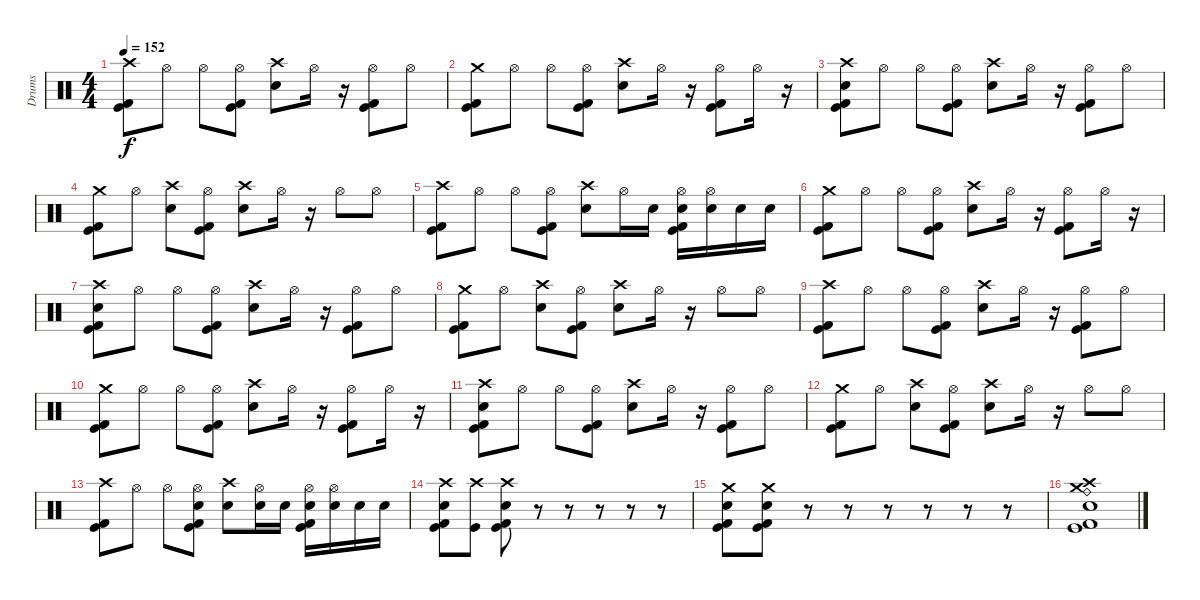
\track ("Drums" "Drums") {instrument percussion}
\staff {score}
\articulation defaults
\ts (4 4)
\tempo 152
\clef neutral
\ks c
("Crash high (hit)" "Kick (hit) 2" "Kick (hit)").8{dy f} "Hi-Hat (open)".8 "Hi-Hat (open)".8 ("Hi-Hat (open)" "Kick (hit) 2" "Kick (hit)").8 ("Crash high (hit)" "Electric Snare (hit)").8 "Hi-Hat (open)".16 r.16 ("Hi-Hat (open)" "Kick (hit) 2" "Kick (hit)").8 "Hi-Hat (open)".8 |
("Crash medium (hit)" "Kick (hit) 2" "Kick (hit)").8 "Hi-Hat (open)".8 "Hi-Hat (open)".8 ("Hi-Hat (open)" "Kick (hit) 2" "Kick (hit)").8 ("Crash high (hit)" "Electric Snare (hit)").8 "Hi-Hat (open)".16 r.16 ("Hi-Hat (open)" "Kick (hit) 2" "Kick (hit)").8 "Hi-Hat (open)".16 r.16 |
("Crash high (hit)" "Electric Snare (hit)" "Kick (hit) 2" "Kick (hit)").8 "Hi-Hat (open)".8 "Hi-Hat (open)".8 ("Hi-Hat (open)" "Kick (hit) 2" "Kick (hit)").8 ("Crash high (hit)" "Electric Snare (hit)").8 "Hi-Hat (open)".16 r.16 ("Hi-Hat (open)" "Kick (hit) 2" "Kick (hit)").8 "Hi-Hat (open)".8 |
("Crash medium (hit)" "Kick (hit) 2" "Kick (hit)").8 "Hi-Hat (open)".8 ("Crash high (hit)" "Electric Snare (hit)").8 ("Hi-Hat (open)" "Kick (hit) 2" "Kick (hit)").8 ("Crash high (hit)" "Electric Snare (hit)").8 "Hi-Hat (open)".16 r.16 "Hi-Hat (open)".8 "Hi-Hat (open)".8 |
("Crash high (hit)" "Kick (hit) 2" "Kick (hit)").8 "Hi-Hat (open)".8 "Hi-Hat (open)".8 ("Hi-Hat (open)" "Kick (hit) 2" "Kick (hit)").8 ("Crash high (hit)" "Electric Snare (hit)").8 "Hi-Hat (open)".16 "Electric Snare (hit)".16 ("Hi-Hat (open)" "Electric Snare (hit)" "Kick (hit) 2" "Kick (hit)").16 ("Hi-Hat (open)" "Electric Snare (hit)").16 "Electric Snare (hit)".16 "Electric Snare (hit)".16 |
("Crash medium (hit)" "Kick (hit) 2" "Kick (hit)").8 "Hi-Hat (open)".8 "Hi-Hat (open)".8 ("Hi-Hat (open)" "Kick (hit) 2" "Kick (hit)").8 ("Crash high (hit)" "Electric Snare (hit)").8 "Hi-Hat (open)".16 r.16 ("Hi-Hat (open)" "Kick (hit) 2" "Kick (hit)").8 "Hi-Hat (open)".16 r.16 |
("Crash high (hit)" "Electric Snare (hit)" "Kick (hit) 2" "Kick (hit)").8 "Hi-Hat (open)".8 "Hi-Hat (open)".8 ("Hi-Hat (open)" "Kick (hit) 2" "Kick (hit)").8 ("Crash high (hit)" "Electric Snare (hit)").8 "Hi-Hat (open)".16 r.16 ("Hi-Hat (open)" "Kick (hit) 2" "Kick (hit)").8 "Hi-Hat (open)".8 |
("Crash medium (hit)" "Kick (hit) 2" "Kick (hit)").8 "Hi-Hat (open)".8 ("Crash high (hit)" "Electric Snare (hit)").8 ("Hi-Hat (open)" "Kick (hit) 2" "Kick (hit)").8 ("Crash high (hit)" "Electric Snare (hit)").8 "Hi-Hat (open)".16 r.16 "Hi-Hat (open)".8 "Hi-Hat (open)".8 |
("Crash high (hit)" "Kick (hit) 2" "Kick (hit)").8 "Hi-Hat (open)".8 "Hi-Hat (open)".8 ("Hi-Hat (open)" "Kick (hit) 2" "Kick (hit)").8 ("Crash high (hit)" "Electric Snare (hit)").8 "Hi-Hat (open)".16 r.16 ("Hi-Hat (open)" "Kick (hit) 2" "Kick (hit)").8 "Hi-Hat (open)".8 |
("Crash medium (hit)" "Kick (hit) 2" "Kick (hit)").8 "Hi-Hat (open)".8 "Hi-Hat (open)".8 ("Hi-Hat (open)" "Kick (hit) 2" "Kick (hit)").8 ("Crash high (hit)" "Electric Snare (hit)").8 "Hi-Hat (open)".16 r.16 ("Hi-Hat (open)" "Kick (hit) 2" "Kick (hit)").8 "Hi-Hat (open)".16 r.16 |
("Crash high (hit)" "Electric Snare (hit)" "Kick (hit) 2" "Kick (hit)").8 "Hi-Hat (open)".8 "Hi-Hat (open)".8 ("Hi-Hat (open)" "Kick (hit) 2" "Kick (hit)").8 ("Crash high (hit)" "Electric Snare (hit)").8 "Hi-Hat (open)".16 r.16 ("Hi-Hat (open)" "Kick (hit) 2" "Kick (hit)").8 "Hi-Hat (open)".8 |
("Crash medium (hit)" "Kick (hit) 2" "Kick (hit)").8 "Hi-Hat (open)".8 ("Crash high (hit)" "Electric Snare (hit)").8 ("Hi-Hat (open)" "Kick (hit) 2" "Kick (hit)").8 ("Crash high (hit)" "Electric Snare (hit)").8 "Hi-Hat (open)".16 r.16 "Hi-Hat (open)".8 "Hi-Hat (open)".8 |
("Crash high (hit)" "Kick (hit) 2" "Kick (hit)").8 "Hi-Hat (open)".8 "Hi-Hat (open)".8 ("Hi-Hat (open)" "Electric Snare (hit)" "Kick (hit) 2" "Kick (hit)").8 ("Crash high (hit)" "Electric Snare (hit)").8 ("Hi-Hat (open)" "Electric Snare (hit)").16 "Electric Snare (hit)".16 ("Hi-Hat (open)" "Electric Snare (hit)" "Kick (hit) 2" "Kick (hit)").16 ("Hi-Hat (open)" "Electric Snare (hit)").16 "Electric Snare (hit)".16 "Electric Snare (hit)".16 |
("Electric Snare (hit)" "Crash high (hit)" "Kick (hit) 2" "Kick (hit)").8 ("Crash high (hit)" "Kick (hit)").8 ("Electric Snare (hit)" "Crash high (hit)" "Kick (hit) 2" "Kick (hit)").8 r.8 r.8 r.8 r.8 r.8 |
("Electric Snare (hit)" "Crash medium (hit)" "Kick (hit) 2" "Kick (hit)").8 ("Electric Snare (hit)" "Crash medium (hit)" "Kick (hit) 2" "Kick (hit)").8 r.8 r.8 r.8 r.8 r.8 r.8 |
("Electric Snare (hit)" "Crash high (hit)" "Crash medium (hit)" "Kick (hit)" "Kick (hit) 2" "Ride (bell)").1
